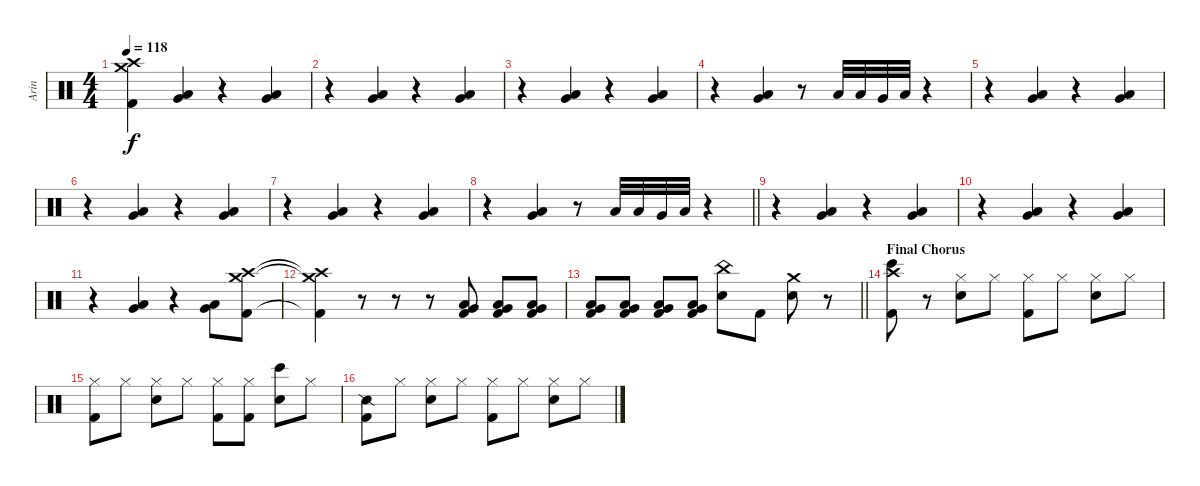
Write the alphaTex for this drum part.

\track ("Arin" "Arin") {instrument percussion}
\staff {score}
\articulation defaults
\ts (4 4)
\tempo 118
\clef neutral
\ks c
("Crash medium (hit)" "Crash high (hit)" "Kick (hit) 2").4{dy f} ("Low Floor Tom (hit)" "Very Low Tom (hit)").4 r.4 ("Low Floor Tom (hit)" "Very Low Tom (hit)").4 |
r.4 ("Low Floor Tom (hit)" "Very Low Tom (hit)").4 r.4 ("Low Floor Tom (hit)" "Very Low Tom (hit)").4 |
r.4 ("Low Floor Tom (hit)" "Very Low Tom (hit)").4 r.4 ("Low Floor Tom (hit)" "Very Low Tom (hit)").4 |
r.4 ("Low Floor Tom (hit)" "Very Low Tom (hit)").4 r.8 "Low Tom (hit)".32 "Low Tom (hit)".32 "Very Low Tom (hit)".32 "Low Floor Tom (hit)".32 r.4 |
r.4 ("Low Floor Tom (hit)" "Very Low Tom (hit)").4 r.4 ("Low Floor Tom (hit)" "Very Low Tom (hit)").4 |
r.4 ("Low Floor Tom (hit)" "Very Low Tom (hit)").4 r.4 ("Low Floor Tom (hit)" "Very Low Tom (hit)").4 |
r.4 ("Low Floor Tom (hit)" "Very Low Tom (hit)").4 r.4 ("Low Floor Tom (hit)" "Very Low Tom (hit)").4 |
\barLineRight lightlight
r.4 ("Low Floor Tom (hit)" "Very Low Tom (hit)").4 r.8 "Low Tom (hit)".32 "Low Tom (hit)".32 "Very Low Tom (hit)".32 "Low Floor Tom (hit)".32 r.4 |
r.4 ("Low Floor Tom (hit)" "Very Low Tom (hit)").4 r.4 ("Low Floor Tom (hit)" "Very Low Tom (hit)").4 |
r.4 ("Low Floor Tom (hit)" "Very Low Tom (hit)").4 r.4 ("Low Floor Tom (hit)" "Very Low Tom (hit)").4 |
r.4 ("Low Floor Tom (hit)" "Very Low Tom (hit)").4 r.4 ("Low Floor Tom (hit)" "Very Low Tom (hit)").8 ("Crash medium (hit)" "Crash high (hit)" "Kick (hit) 2").8 |
("Crash medium (hit)"{t} "Crash high (hit)"{t} "Kick (hit) 2"{t}).4 r.8 r.8 r.8 ("Low Floor Tom (hit)" "Very Low Tom (hit)" "Kick (hit) 2").8 ("Low Floor Tom (hit)" "Very Low Tom (hit)" "Kick (hit) 2").8 ("Low Floor Tom (hit)" "Very Low Tom (hit)" "Kick (hit) 2").8 |
\barLineRight lightlight
("Low Floor Tom (hit)" "Very Low Tom (hit)" "Kick (hit) 2").8 ("Low Floor Tom (hit)" "Very Low Tom (hit)" "Kick (hit) 2").8 ("Low Floor Tom (hit)" "Very Low Tom (hit)" "Kick (hit) 2").8 ("Low Floor Tom (hit)" "Very Low Tom (hit)" "Kick (hit) 2").8 ("China (hit)" "Electric Snare (hit)").8 "Kick (hit) 2".8 ("Crash medium (hit)" "Electric Snare (hit)").8 r.8 |
\section ("" "Final Chorus")
("Bongo High (hit)" "Crash high (hit)" "Kick (hit) 2").8 r.8 ("Hi-Hat (closed)" "Electric Snare (hit)").8 "Hi-Hat (closed)".8 ("Hi-Hat (closed)" "Kick (hit) 2").8 "Hi-Hat (closed)".8 ("Hi-Hat (closed)" "Electric Snare (hit)").8 "Hi-Hat (closed)".8 |
("Hi-Hat (closed)" "Kick (hit) 2").8 "Hi-Hat (closed)".8 ("Hi-Hat (closed)" "Electric Snare (hit)").8 "Hi-Hat (closed)".8 ("Hi-Hat (closed)" "Kick (hit) 2").8 ("Hi-Hat (closed)" "Kick (hit) 2").8 ("Bongo High (hit)" "Electric Snare (hit)").8 "Hi-Hat (closed)".8 |
("Snare (side stick) 2" "Kick (hit) 2").8 "Hi-Hat (closed)".8 ("Hi-Hat (closed)" "Electric Snare (hit)").8 "Hi-Hat (closed)".8 ("Hi-Hat (closed)" "Kick (hit) 2").8 "Hi-Hat (closed)".8 ("Hi-Hat (closed)" "Electric Snare (hit)").8 "Hi-Hat (closed)".8
